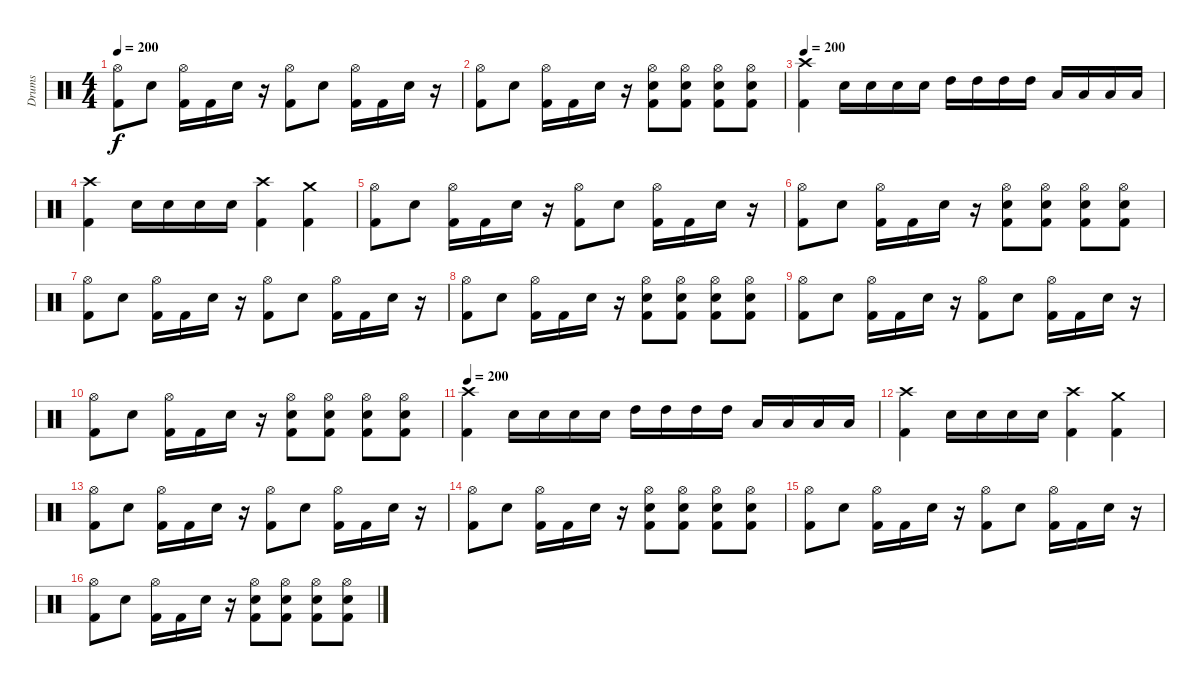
\track ("Drums" "Drums") {instrument percussion}
\staff {score}
\articulation defaults
\ts (4 4)
\tempo 200
\clef neutral
\ks c
("Hi-Hat (open)" "Kick (hit) 2").8{dy f} "Snare (hit) 2".8 ("Hi-Hat (open)" "Kick (hit) 2").16 "Kick (hit) 2".16 "Snare (hit) 2".16 r.16 ("Hi-Hat (open)" "Kick (hit) 2").8 "Snare (hit) 2".8 ("Hi-Hat (open)" "Kick (hit) 2").16 "Kick (hit) 2".16 "Snare (hit) 2".16 r.16 |
("Hi-Hat (open)" "Kick (hit) 2").8 "Snare (hit) 2".8 ("Hi-Hat (open)" "Kick (hit) 2").16 "Kick (hit) 2".16 "Snare (hit) 2".16 r.16 ("Hi-Hat (open)" "Snare (hit) 2" "Kick (hit) 2").8 ("Hi-Hat (open)" "Snare (hit) 2" "Kick (hit) 2").8 ("Hi-Hat (open)" "Snare (hit) 2" "Kick (hit) 2").8 ("Hi-Hat (open)" "Snare (hit) 2" "Kick (hit) 2").8 |
\tempo 200
("Crash high (hit)" "Kick (hit) 2").4 "Snare (hit) 2".16 "Snare (hit) 2".16 "Snare (hit) 2".16 "Snare (hit) 2".16 "High Tom (hit)".16 "High Tom (hit)".16 "High Tom (hit)".16 "High Tom (hit)".16 "Low Tom (hit)".16 "Low Tom (hit)".16 "Low Tom (hit)".16 "Low Tom (hit)".16 |
("Crash high (hit)" "Kick (hit) 2").4 "Snare (hit) 2".16 "Snare (hit) 2".16 "Snare (hit) 2".16 "Snare (hit) 2".16 ("Crash high (hit)" "Kick (hit) 2").4 ("Crash medium (hit)" "Kick (hit) 2").4 |
("Hi-Hat (open)" "Kick (hit) 2").8 "Snare (hit) 2".8 ("Hi-Hat (open)" "Kick (hit) 2").16 "Kick (hit) 2".16 "Snare (hit) 2".16 r.16 ("Hi-Hat (open)" "Kick (hit) 2").8 "Snare (hit) 2".8 ("Hi-Hat (open)" "Kick (hit) 2").16 "Kick (hit) 2".16 "Snare (hit) 2".16 r.16 |
("Hi-Hat (open)" "Kick (hit) 2").8 "Snare (hit) 2".8 ("Hi-Hat (open)" "Kick (hit) 2").16 "Kick (hit) 2".16 "Snare (hit) 2".16 r.16 ("Hi-Hat (open)" "Snare (hit) 2" "Kick (hit) 2").8 ("Hi-Hat (open)" "Snare (hit) 2" "Kick (hit) 2").8 ("Hi-Hat (open)" "Snare (hit) 2" "Kick (hit) 2").8 ("Hi-Hat (open)" "Snare (hit) 2" "Kick (hit) 2").8 |
("Hi-Hat (open)" "Kick (hit) 2").8 "Snare (hit) 2".8 ("Hi-Hat (open)" "Kick (hit) 2").16 "Kick (hit) 2".16 "Snare (hit) 2".16 r.16 ("Hi-Hat (open)" "Kick (hit) 2").8 "Snare (hit) 2".8 ("Hi-Hat (open)" "Kick (hit) 2").16 "Kick (hit) 2".16 "Snare (hit) 2".16 r.16 |
("Hi-Hat (open)" "Kick (hit) 2").8 "Snare (hit) 2".8 ("Hi-Hat (open)" "Kick (hit) 2").16 "Kick (hit) 2".16 "Snare (hit) 2".16 r.16 ("Hi-Hat (open)" "Snare (hit) 2" "Kick (hit) 2").8 ("Hi-Hat (open)" "Snare (hit) 2" "Kick (hit) 2").8 ("Hi-Hat (open)" "Snare (hit) 2" "Kick (hit) 2").8 ("Hi-Hat (open)" "Snare (hit) 2" "Kick (hit) 2").8 |
("Hi-Hat (open)" "Kick (hit) 2").8 "Snare (hit) 2".8 ("Hi-Hat (open)" "Kick (hit) 2").16 "Kick (hit) 2".16 "Snare (hit) 2".16 r.16 ("Hi-Hat (open)" "Kick (hit) 2").8 "Snare (hit) 2".8 ("Hi-Hat (open)" "Kick (hit) 2").16 "Kick (hit) 2".16 "Snare (hit) 2".16 r.16 |
("Hi-Hat (open)" "Kick (hit) 2").8 "Snare (hit) 2".8 ("Hi-Hat (open)" "Kick (hit) 2").16 "Kick (hit) 2".16 "Snare (hit) 2".16 r.16 ("Hi-Hat (open)" "Snare (hit) 2" "Kick (hit) 2").8 ("Hi-Hat (open)" "Snare (hit) 2" "Kick (hit) 2").8 ("Hi-Hat (open)" "Snare (hit) 2" "Kick (hit) 2").8 ("Hi-Hat (open)" "Snare (hit) 2" "Kick (hit) 2").8 |
\tempo 200
("Crash high (hit)" "Kick (hit) 2").4 "Snare (hit) 2".16 "Snare (hit) 2".16 "Snare (hit) 2".16 "Snare (hit) 2".16 "High Tom (hit)".16 "High Tom (hit)".16 "High Tom (hit)".16 "High Tom (hit)".16 "Low Tom (hit)".16 "Low Tom (hit)".16 "Low Tom (hit)".16 "Low Tom (hit)".16 |
("Crash high (hit)" "Kick (hit) 2").4 "Snare (hit) 2".16 "Snare (hit) 2".16 "Snare (hit) 2".16 "Snare (hit) 2".16 ("Crash high (hit)" "Kick (hit) 2").4 ("Crash medium (hit)" "Kick (hit) 2").4 |
("Hi-Hat (open)" "Kick (hit) 2").8 "Snare (hit) 2".8 ("Hi-Hat (open)" "Kick (hit) 2").16 "Kick (hit) 2".16 "Snare (hit) 2".16 r.16 ("Hi-Hat (open)" "Kick (hit) 2").8 "Snare (hit) 2".8 ("Hi-Hat (open)" "Kick (hit) 2").16 "Kick (hit) 2".16 "Snare (hit) 2".16 r.16 |
("Hi-Hat (open)" "Kick (hit) 2").8 "Snare (hit) 2".8 ("Hi-Hat (open)" "Kick (hit) 2").16 "Kick (hit) 2".16 "Snare (hit) 2".16 r.16 ("Hi-Hat (open)" "Snare (hit) 2" "Kick (hit) 2").8 ("Hi-Hat (open)" "Snare (hit) 2" "Kick (hit) 2").8 ("Hi-Hat (open)" "Snare (hit) 2" "Kick (hit) 2").8 ("Hi-Hat (open)" "Snare (hit) 2" "Kick (hit) 2").8 |
("Hi-Hat (open)" "Kick (hit) 2").8 "Snare (hit) 2".8 ("Hi-Hat (open)" "Kick (hit) 2").16 "Kick (hit) 2".16 "Snare (hit) 2".16 r.16 ("Hi-Hat (open)" "Kick (hit) 2").8 "Snare (hit) 2".8 ("Hi-Hat (open)" "Kick (hit) 2").16 "Kick (hit) 2".16 "Snare (hit) 2".16 r.16 |
("Hi-Hat (open)" "Kick (hit) 2").8 "Snare (hit) 2".8 ("Hi-Hat (open)" "Kick (hit) 2").16 "Kick (hit) 2".16 "Snare (hit) 2".16 r.16 ("Hi-Hat (open)" "Snare (hit) 2" "Kick (hit) 2").8 ("Hi-Hat (open)" "Snare (hit) 2" "Kick (hit) 2").8 ("Hi-Hat (open)" "Snare (hit) 2" "Kick (hit) 2").8 ("Hi-Hat (open)" "Snare (hit) 2" "Kick (hit) 2").8
